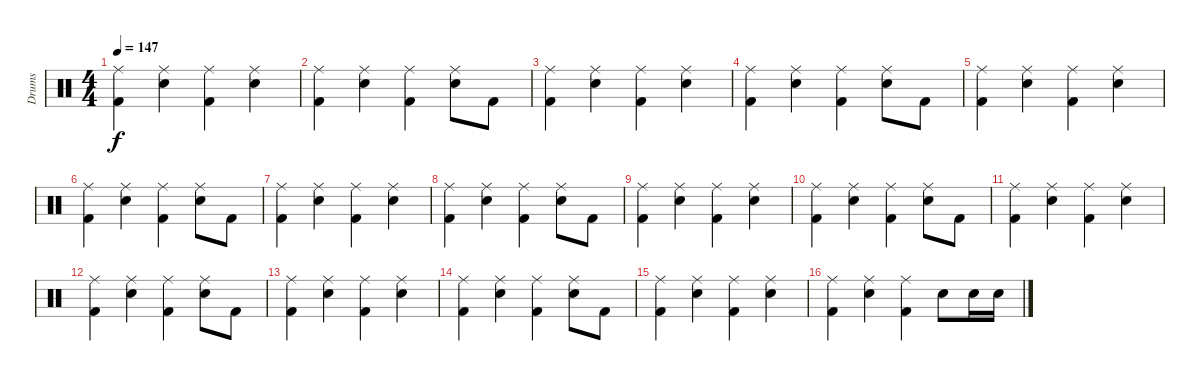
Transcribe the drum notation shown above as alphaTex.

\track ("Drums" "Drums") {instrument percussion}
\staff {score}
\articulation defaults
\ts (4 4)
\tempo 147
\clef neutral
\ks c
("Ride (middle)" "Kick (hit) 2").4{dy f} ("Ride (middle)" "Snare (hit) 2").4 ("Ride (middle)" "Kick (hit) 2").4 ("Ride (middle)" "Snare (hit) 2").4 |
("Ride (middle)" "Kick (hit) 2").4 ("Ride (middle)" "Snare (hit) 2").4 ("Ride (middle)" "Kick (hit) 2").4 ("Ride (middle)" "Snare (hit) 2").8 "Kick (hit) 2".8 |
("Ride (middle)" "Kick (hit) 2").4 ("Ride (middle)" "Snare (hit) 2").4 ("Ride (middle)" "Kick (hit) 2").4 ("Ride (middle)" "Snare (hit) 2").4 |
("Ride (middle)" "Kick (hit) 2").4 ("Ride (middle)" "Snare (hit) 2").4 ("Ride (middle)" "Kick (hit) 2").4 ("Ride (middle)" "Snare (hit) 2").8 "Kick (hit) 2".8 |
("Ride (middle)" "Kick (hit) 2").4 ("Ride (middle)" "Snare (hit) 2").4 ("Ride (middle)" "Kick (hit) 2").4 ("Ride (middle)" "Snare (hit) 2").4 |
("Ride (middle)" "Kick (hit) 2").4 ("Ride (middle)" "Snare (hit) 2").4 ("Ride (middle)" "Kick (hit) 2").4 ("Ride (middle)" "Snare (hit) 2").8 "Kick (hit) 2".8 |
("Ride (middle)" "Kick (hit) 2").4 ("Ride (middle)" "Snare (hit) 2").4 ("Ride (middle)" "Kick (hit) 2").4 ("Ride (middle)" "Snare (hit) 2").4 |
("Ride (middle)" "Kick (hit) 2").4 ("Ride (middle)" "Snare (hit) 2").4 ("Ride (middle)" "Kick (hit) 2").4 ("Ride (middle)" "Snare (hit) 2").8 "Kick (hit) 2".8 |
("Ride (middle)" "Kick (hit) 2").4 ("Ride (middle)" "Snare (hit) 2").4 ("Ride (middle)" "Kick (hit) 2").4 ("Ride (middle)" "Snare (hit) 2").4 |
("Ride (middle)" "Kick (hit) 2").4 ("Ride (middle)" "Snare (hit) 2").4 ("Ride (middle)" "Kick (hit) 2").4 ("Ride (middle)" "Snare (hit) 2").8 "Kick (hit) 2".8 |
("Ride (middle)" "Kick (hit) 2").4 ("Ride (middle)" "Snare (hit) 2").4 ("Ride (middle)" "Kick (hit) 2").4 ("Ride (middle)" "Snare (hit) 2").4 |
("Ride (middle)" "Kick (hit) 2").4 ("Ride (middle)" "Snare (hit) 2").4 ("Ride (middle)" "Kick (hit) 2").4 ("Ride (middle)" "Snare (hit) 2").8 "Kick (hit) 2".8 |
("Ride (middle)" "Kick (hit) 2").4 ("Ride (middle)" "Snare (hit) 2").4 ("Ride (middle)" "Kick (hit) 2").4 ("Ride (middle)" "Snare (hit) 2").4 |
("Ride (middle)" "Kick (hit) 2").4 ("Ride (middle)" "Snare (hit) 2").4 ("Ride (middle)" "Kick (hit) 2").4 ("Ride (middle)" "Snare (hit) 2").8 "Kick (hit) 2".8 |
("Ride (middle)" "Kick (hit) 2").4 ("Ride (middle)" "Snare (hit) 2").4 ("Ride (middle)" "Kick (hit) 2").4 ("Ride (middle)" "Snare (hit) 2").4 |
("Ride (middle)" "Kick (hit) 2").4 ("Ride (middle)" "Snare (hit) 2").4 ("Ride (middle)" "Kick (hit) 2").4 "Snare (hit) 2".8 "Snare (hit) 2".16 "Snare (hit) 2".16
